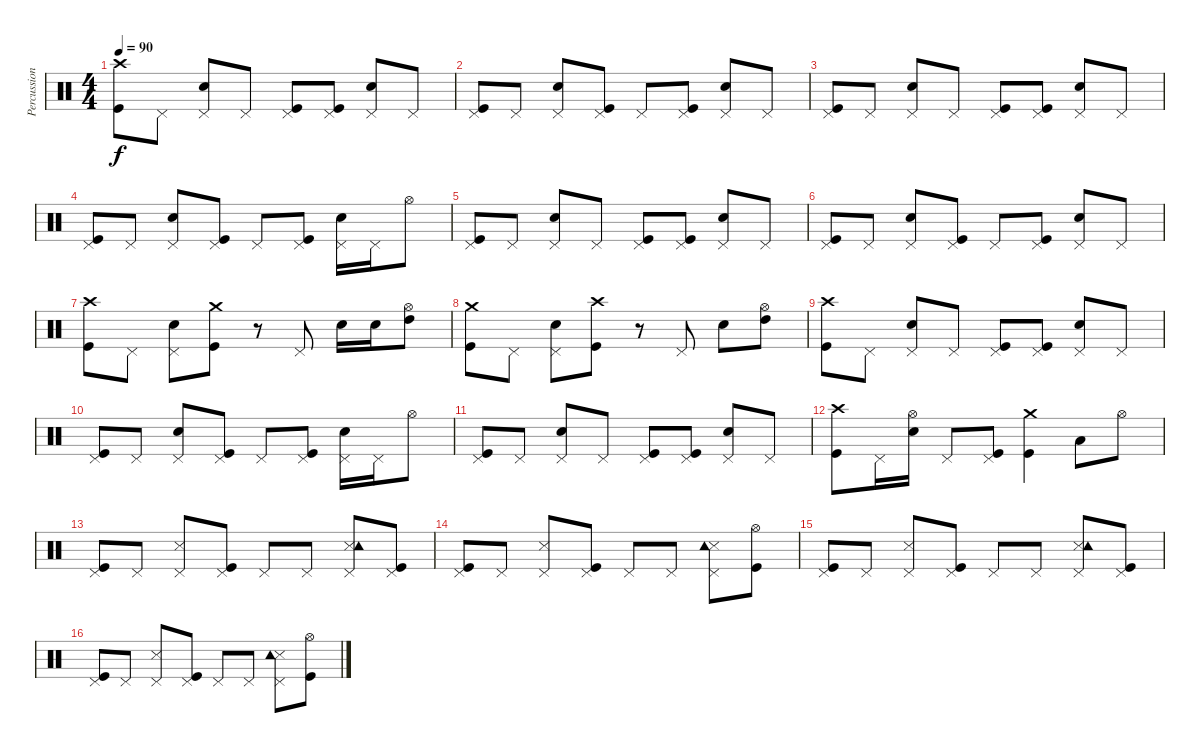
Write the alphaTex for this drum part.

\track ("Percussions" "Percussion") {instrument percussion}
\staff {score}
\articulation defaults
\ts (4 4)
\tempo 90
\clef neutral
\ks c
("Crash high (hit)" "Kick (hit)").8{dy f} "Pedal Hi-Hat (hit)".8 ("Pedal Hi-Hat (hit)" "Snare (hit) 2").8 "Pedal Hi-Hat (hit)".8 ("Pedal Hi-Hat (hit)" "Kick (hit)").8 ("Pedal Hi-Hat (hit)" "Kick (hit)").8 ("Pedal Hi-Hat (hit)" "Snare (hit) 2").8 "Pedal Hi-Hat (hit)".8 |
("Pedal Hi-Hat (hit)" "Kick (hit)").8 "Pedal Hi-Hat (hit)".8 ("Pedal Hi-Hat (hit)" "Snare (hit) 2").8 ("Pedal Hi-Hat (hit)" "Kick (hit)").8 "Pedal Hi-Hat (hit)".8 ("Pedal Hi-Hat (hit)" "Kick (hit)").8 ("Pedal Hi-Hat (hit)" "Snare (hit) 2").8 "Pedal Hi-Hat (hit)".8 |
("Pedal Hi-Hat (hit)" "Kick (hit)").8 "Pedal Hi-Hat (hit)".8 ("Pedal Hi-Hat (hit)" "Snare (hit) 2").8 "Pedal Hi-Hat (hit)".8 ("Pedal Hi-Hat (hit)" "Kick (hit)").8 ("Pedal Hi-Hat (hit)" "Kick (hit)").8 ("Pedal Hi-Hat (hit)" "Snare (hit) 2").8 "Pedal Hi-Hat (hit)".8 |
("Pedal Hi-Hat (hit)" "Kick (hit)").8 "Pedal Hi-Hat (hit)".8 ("Pedal Hi-Hat (hit)" "Snare (hit) 2").8 ("Pedal Hi-Hat (hit)" "Kick (hit)").8 "Pedal Hi-Hat (hit)".8 ("Pedal Hi-Hat (hit)" "Kick (hit)").8 ("Pedal Hi-Hat (hit)" "Snare (hit) 2").16 "Pedal Hi-Hat (hit)".16 "Hi-Hat (open)".8 |
("Pedal Hi-Hat (hit)" "Kick (hit)").8 "Pedal Hi-Hat (hit)".8 ("Pedal Hi-Hat (hit)" "Snare (hit) 2").8 "Pedal Hi-Hat (hit)".8 ("Pedal Hi-Hat (hit)" "Kick (hit)").8 ("Pedal Hi-Hat (hit)" "Kick (hit)").8 ("Pedal Hi-Hat (hit)" "Snare (hit) 2").8 "Pedal Hi-Hat (hit)".8 |
("Pedal Hi-Hat (hit)" "Kick (hit)").8 "Pedal Hi-Hat (hit)".8 ("Pedal Hi-Hat (hit)" "Snare (hit) 2").8 ("Pedal Hi-Hat (hit)" "Kick (hit)").8 "Pedal Hi-Hat (hit)".8 ("Pedal Hi-Hat (hit)" "Kick (hit)").8 ("Pedal Hi-Hat (hit)" "Snare (hit) 2").8 "Pedal Hi-Hat (hit)".8 |
("Crash high (hit)" "Kick (hit)").8 "Pedal Hi-Hat (hit)".8 ("Pedal Hi-Hat (hit)" "Snare (hit) 2").8 ("Crash medium (hit)" "Kick (hit)").8 r.8 "Pedal Hi-Hat (hit)".8 "Snare (hit) 2".16 "Snare (hit) 2".16 ("Hi-Hat (open)" "High Tom (hit)").8 |
("Crash medium (hit)" "Kick (hit)").8 "Pedal Hi-Hat (hit)".8 ("Pedal Hi-Hat (hit)" "Snare (hit) 2").8 ("Crash high (hit)" "Kick (hit)").8 r.8 "Pedal Hi-Hat (hit)".8 "Snare (hit) 2".8 ("Hi-Hat (open)" "High Tom (hit)").8 |
("Crash high (hit)" "Kick (hit)").8 "Pedal Hi-Hat (hit)".8 ("Pedal Hi-Hat (hit)" "Snare (hit) 2").8 "Pedal Hi-Hat (hit)".8 ("Pedal Hi-Hat (hit)" "Kick (hit)").8 ("Pedal Hi-Hat (hit)" "Kick (hit)").8 ("Pedal Hi-Hat (hit)" "Snare (hit) 2").8 "Pedal Hi-Hat (hit)".8 |
("Pedal Hi-Hat (hit)" "Kick (hit)").8 "Pedal Hi-Hat (hit)".8 ("Pedal Hi-Hat (hit)" "Snare (hit) 2").8 ("Pedal Hi-Hat (hit)" "Kick (hit)").8 "Pedal Hi-Hat (hit)".8 ("Pedal Hi-Hat (hit)" "Kick (hit)").8 ("Pedal Hi-Hat (hit)" "Snare (hit) 2").16 "Pedal Hi-Hat (hit)".16 "Hi-Hat (open)".8 |
("Pedal Hi-Hat (hit)" "Kick (hit)").8 "Pedal Hi-Hat (hit)".8 ("Pedal Hi-Hat (hit)" "Snare (hit) 2").8 "Pedal Hi-Hat (hit)".8 ("Pedal Hi-Hat (hit)" "Kick (hit)").8 ("Pedal Hi-Hat (hit)" "Kick (hit)").8 ("Pedal Hi-Hat (hit)" "Snare (hit) 2").8 "Pedal Hi-Hat (hit)".8 |
("Crash high (hit)" "Kick (hit)").8 "Pedal Hi-Hat (hit)".16 ("Hi-Hat (open)" "Snare (hit) 2").16 "Pedal Hi-Hat (hit)".8 ("Pedal Hi-Hat (hit)" "Kick (hit)").8 ("Crash medium (hit)" "Kick (hit)").4 "Low Tom (hit)".8 "Hi-Hat (open)".8 |
("Pedal Hi-Hat (hit)" "Kick (hit)").8 "Pedal Hi-Hat (hit)".8 ("Pedal Hi-Hat (hit)" "Snare (side stick) 3").8 ("Pedal Hi-Hat (hit)" "Kick (hit)").8 "Pedal Hi-Hat (hit)".8 "Pedal Hi-Hat (hit)".8 ("Pedal Hi-Hat (hit)" "Snare (side stick) 3" "Tambourine (hit)").8 ("Pedal Hi-Hat (hit)" "Kick (hit)").8 |
("Pedal Hi-Hat (hit)" "Kick (hit)").8 "Pedal Hi-Hat (hit)".8 ("Pedal Hi-Hat (hit)" "Snare (side stick) 3").8 ("Pedal Hi-Hat (hit)" "Kick (hit)").8 "Pedal Hi-Hat (hit)".8 "Pedal Hi-Hat (hit)".8 ("Pedal Hi-Hat (hit)" "Snare (side stick) 3" "Tambourine (hit)").8 ("Hi-Hat (open)" "Kick (hit)").8 |
("Pedal Hi-Hat (hit)" "Kick (hit)").8 "Pedal Hi-Hat (hit)".8 ("Pedal Hi-Hat (hit)" "Snare (side stick) 3").8 ("Pedal Hi-Hat (hit)" "Kick (hit)").8 "Pedal Hi-Hat (hit)".8 "Pedal Hi-Hat (hit)".8 ("Pedal Hi-Hat (hit)" "Snare (side stick) 3" "Tambourine (hit)").8 ("Pedal Hi-Hat (hit)" "Kick (hit)").8 |
("Pedal Hi-Hat (hit)" "Kick (hit)").8 "Pedal Hi-Hat (hit)".8 ("Pedal Hi-Hat (hit)" "Snare (side stick) 3").8 ("Pedal Hi-Hat (hit)" "Kick (hit)").8 "Pedal Hi-Hat (hit)".8 "Pedal Hi-Hat (hit)".8 ("Pedal Hi-Hat (hit)" "Snare (side stick) 3" "Tambourine (hit)").8 ("Hi-Hat (open)" "Kick (hit)").8
